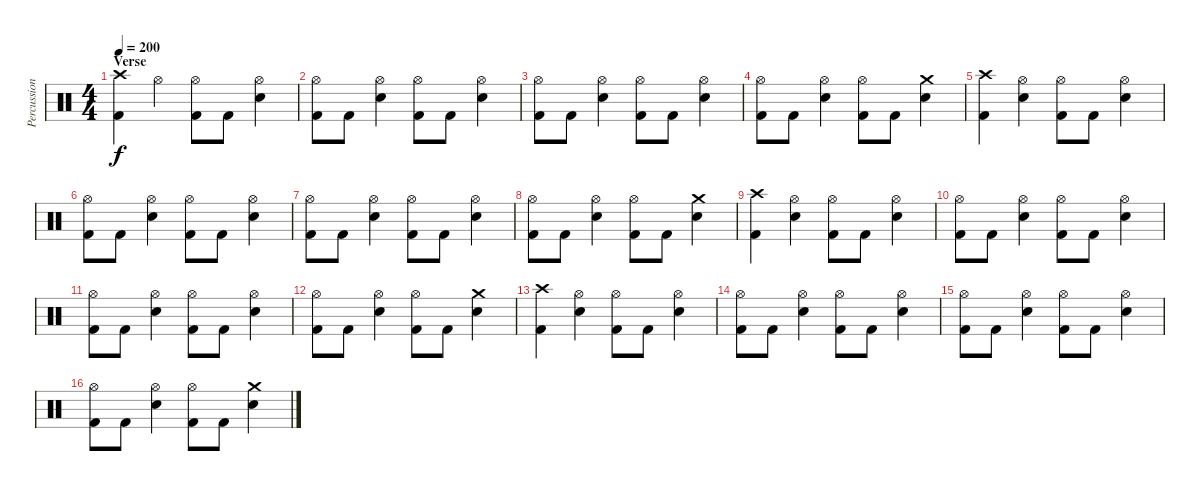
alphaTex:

\track ("Percussion" "Percussion") {instrument percussion}
\staff {score}
\articulation defaults
\ts (4 4)
\section ("" "Verse")
\tempo 200
\clef neutral
\ks c
("Crash high (hit)" "Kick (hit) 2").4{dy f} "Hi-Hat (open)".4 ("Hi-Hat (open)" "Kick (hit) 2").8 "Kick (hit) 2".8 ("Hi-Hat (open)" "Snare (hit) 2").4 |
("Hi-Hat (open)" "Kick (hit) 2").8 "Kick (hit) 2".8 ("Hi-Hat (open)" "Snare (hit) 2").4 ("Hi-Hat (open)" "Kick (hit) 2").8 "Kick (hit) 2".8 ("Hi-Hat (open)" "Snare (hit) 2").4 |
("Hi-Hat (open)" "Kick (hit) 2").8 "Kick (hit) 2".8 ("Hi-Hat (open)" "Snare (hit) 2").4 ("Hi-Hat (open)" "Kick (hit) 2").8 "Kick (hit) 2".8 ("Hi-Hat (open)" "Snare (hit) 2").4 |
("Hi-Hat (open)" "Kick (hit) 2").8 "Kick (hit) 2".8 ("Hi-Hat (open)" "Snare (hit) 2").4 ("Hi-Hat (open)" "Kick (hit) 2").8 "Kick (hit) 2".8 ("Crash medium (hit)" "Snare (hit) 2").4 |
("Crash high (hit)" "Kick (hit) 2").4 ("Hi-Hat (open)" "Snare (hit) 2").4 ("Hi-Hat (open)" "Kick (hit) 2").8 "Kick (hit) 2".8 ("Hi-Hat (open)" "Snare (hit) 2").4 |
("Hi-Hat (open)" "Kick (hit) 2").8 "Kick (hit) 2".8 ("Hi-Hat (open)" "Snare (hit) 2").4 ("Hi-Hat (open)" "Kick (hit) 2").8 "Kick (hit) 2".8 ("Hi-Hat (open)" "Snare (hit) 2").4 |
("Hi-Hat (open)" "Kick (hit) 2").8 "Kick (hit) 2".8 ("Hi-Hat (open)" "Snare (hit) 2").4 ("Hi-Hat (open)" "Kick (hit) 2").8 "Kick (hit) 2".8 ("Hi-Hat (open)" "Snare (hit) 2").4 |
("Hi-Hat (open)" "Kick (hit) 2").8 "Kick (hit) 2".8 ("Hi-Hat (open)" "Snare (hit) 2").4 ("Hi-Hat (open)" "Kick (hit) 2").8 "Kick (hit) 2".8 ("Crash medium (hit)" "Snare (hit) 2").4 |
("Crash high (hit)" "Kick (hit) 2").4 ("Hi-Hat (open)" "Snare (hit) 2").4 ("Hi-Hat (open)" "Kick (hit) 2").8 "Kick (hit) 2".8 ("Hi-Hat (open)" "Snare (hit) 2").4 |
("Hi-Hat (open)" "Kick (hit) 2").8 "Kick (hit) 2".8 ("Hi-Hat (open)" "Snare (hit) 2").4 ("Hi-Hat (open)" "Kick (hit) 2").8 "Kick (hit) 2".8 ("Hi-Hat (open)" "Snare (hit) 2").4 |
("Hi-Hat (open)" "Kick (hit) 2").8 "Kick (hit) 2".8 ("Hi-Hat (open)" "Snare (hit) 2").4 ("Hi-Hat (open)" "Kick (hit) 2").8 "Kick (hit) 2".8 ("Hi-Hat (open)" "Snare (hit) 2").4 |
("Hi-Hat (open)" "Kick (hit) 2").8 "Kick (hit) 2".8 ("Hi-Hat (open)" "Snare (hit) 2").4 ("Hi-Hat (open)" "Kick (hit) 2").8 "Kick (hit) 2".8 ("Crash medium (hit)" "Snare (hit) 2").4 |
("Crash high (hit)" "Kick (hit) 2").4 ("Hi-Hat (open)" "Snare (hit) 2").4 ("Hi-Hat (open)" "Kick (hit) 2").8 "Kick (hit) 2".8 ("Hi-Hat (open)" "Snare (hit) 2").4 |
("Hi-Hat (open)" "Kick (hit) 2").8 "Kick (hit) 2".8 ("Hi-Hat (open)" "Snare (hit) 2").4 ("Hi-Hat (open)" "Kick (hit) 2").8 "Kick (hit) 2".8 ("Hi-Hat (open)" "Snare (hit) 2").4 |
("Hi-Hat (open)" "Kick (hit) 2").8 "Kick (hit) 2".8 ("Hi-Hat (open)" "Snare (hit) 2").4 ("Hi-Hat (open)" "Kick (hit) 2").8 "Kick (hit) 2".8 ("Hi-Hat (open)" "Snare (hit) 2").4 |
("Hi-Hat (open)" "Kick (hit) 2").8 "Kick (hit) 2".8 ("Hi-Hat (open)" "Snare (hit) 2").4 ("Hi-Hat (open)" "Kick (hit) 2").8 "Kick (hit) 2".8 ("Crash medium (hit)" "Snare (hit) 2").4
